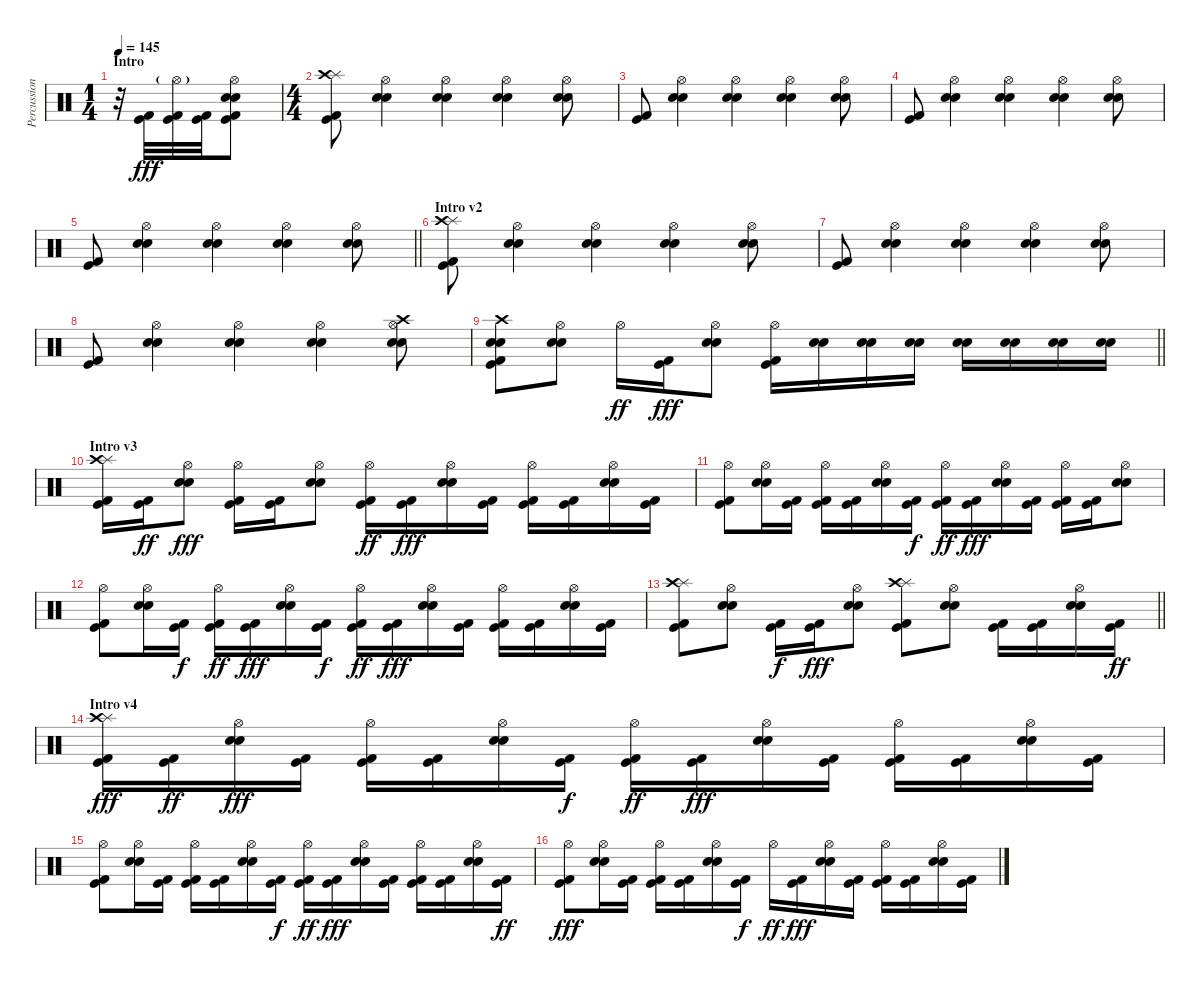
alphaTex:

\track ("Percussion" "Percussion") {instrument percussion}
\staff {score}
\articulation defaults
\ts (1 4)
\section ("" "Intro")
\tempo 145
\clef neutral
\ks c
r.32{dy fff} ("Kick (hit)" "Kick (hit) 2").32 ("Hi-Hat (open)"{g} "Kick (hit)" "Kick (hit) 2").32 ("Kick (hit)" "Kick (hit) 2").32 ("Hi-Hat (open)" "Electric Snare (hit)" "Snare (hit) 2" "Kick (hit)" "Kick (hit) 2").8 |
\ts (4 4)
("Splash (hit)" "Crash high (hit)" "Kick (hit)" "Kick (hit) 2").8 ("Hi-Hat (open)" "Electric Snare (hit)" "Snare (hit) 2").4 ("Hi-Hat (open)" "Electric Snare (hit)" "Snare (hit) 2").4 ("Hi-Hat (open)" "Electric Snare (hit)" "Snare (hit) 2").4 ("Hi-Hat (open)" "Electric Snare (hit)" "Snare (hit) 2").8 |
("Kick (hit)" "Kick (hit) 2").8 ("Hi-Hat (open)" "Electric Snare (hit)" "Snare (hit) 2").4 ("Hi-Hat (open)" "Electric Snare (hit)" "Snare (hit) 2").4 ("Hi-Hat (open)" "Electric Snare (hit)" "Snare (hit) 2").4 ("Hi-Hat (open)" "Electric Snare (hit)" "Snare (hit) 2").8 |
("Kick (hit)" "Kick (hit) 2").8 ("Hi-Hat (open)" "Electric Snare (hit)" "Snare (hit) 2").4 ("Hi-Hat (open)" "Electric Snare (hit)" "Snare (hit) 2").4 ("Hi-Hat (open)" "Electric Snare (hit)" "Snare (hit) 2").4 ("Hi-Hat (open)" "Electric Snare (hit)" "Snare (hit) 2").8 |
\barLineRight lightlight
("Kick (hit)" "Kick (hit) 2").8 ("Hi-Hat (open)" "Electric Snare (hit)" "Snare (hit) 2").4 ("Hi-Hat (open)" "Electric Snare (hit)" "Snare (hit) 2").4 ("Hi-Hat (open)" "Electric Snare (hit)" "Snare (hit) 2").4 ("Hi-Hat (open)" "Electric Snare (hit)" "Snare (hit) 2").8 |
\section ("" "Intro v2")
("Splash (hit)" "Crash high (hit)" "Kick (hit)" "Kick (hit) 2").8 ("Hi-Hat (open)" "Electric Snare (hit)" "Snare (hit) 2").4 ("Hi-Hat (open)" "Electric Snare (hit)" "Snare (hit) 2").4 ("Hi-Hat (open)" "Electric Snare (hit)" "Snare (hit) 2").4 ("Hi-Hat (open)" "Electric Snare (hit)" "Snare (hit) 2").8 |
("Kick (hit)" "Kick (hit) 2").8 ("Hi-Hat (open)" "Electric Snare (hit)" "Snare (hit) 2").4 ("Hi-Hat (open)" "Electric Snare (hit)" "Snare (hit) 2").4 ("Hi-Hat (open)" "Electric Snare (hit)" "Snare (hit) 2").4 ("Hi-Hat (open)" "Electric Snare (hit)" "Snare (hit) 2").8 |
("Kick (hit)" "Kick (hit) 2").8 ("Hi-Hat (open)" "Electric Snare (hit)" "Snare (hit) 2").4 ("Hi-Hat (open)" "Electric Snare (hit)" "Snare (hit) 2").4 ("Hi-Hat (open)" "Electric Snare (hit)" "Snare (hit) 2").4 ("Hi-Hat (open)" "Electric Snare (hit)" "Snare (hit) 2" "Crash high (hit)").8 |
\barLineRight lightlight
("Crash high (hit)" "Electric Snare (hit)" "Snare (hit) 2" "Kick (hit)" "Kick (hit) 2").8 ("Hi-Hat (open)" "Electric Snare (hit)" "Snare (hit) 2").8 "Hi-Hat (open)".16{dy ff} ("Kick (hit)" "Kick (hit) 2").16{dy fff} ("Hi-Hat (open)" "Electric Snare (hit)" "Snare (hit) 2").8 ("Hi-Hat (open)" "Kick (hit)" "Kick (hit) 2").16 ("Electric Snare (hit)" "Snare (hit) 2").16 ("Electric Snare (hit)" "Snare (hit) 2").16 ("Electric Snare (hit)" "Snare (hit) 2").16 ("Electric Snare (hit)" "Snare (hit) 2").16 ("Electric Snare (hit)" "Snare (hit) 2").16 ("Electric Snare (hit)" "Snare (hit) 2").16 ("Electric Snare (hit)" "Snare (hit) 2").16 |
\section ("" "Intro v3")
("Splash (hit)" "Crash high (hit)" "Kick (hit)" "Kick (hit) 2").16 ("Kick (hit)" "Kick (hit) 2").16{dy ff} ("Hi-Hat (open)" "Electric Snare (hit)" "Snare (hit) 2").8{dy fff} ("Hi-Hat (open)" "Kick (hit)" "Kick (hit) 2").16 ("Kick (hit)" "Kick (hit) 2").16 ("Hi-Hat (open)" "Electric Snare (hit)" "Snare (hit) 2").8 ("Hi-Hat (open)" "Kick (hit)" "Kick (hit) 2").16{dy ff} ("Kick (hit)" "Kick (hit) 2").16{dy fff} ("Hi-Hat (open)" "Electric Snare (hit)" "Snare (hit) 2").16 ("Kick (hit)" "Kick (hit) 2").16 ("Hi-Hat (open)" "Kick (hit)" "Kick (hit) 2").16 ("Kick (hit)" "Kick (hit) 2").16 ("Hi-Hat (open)" "Electric Snare (hit)" "Snare (hit) 2").16 ("Kick (hit)" "Kick (hit) 2").16 |
("Hi-Hat (open)" "Kick (hit)" "Kick (hit) 2").8 ("Hi-Hat (open)" "Electric Snare (hit)" "Snare (hit) 2").16 ("Kick (hit)" "Kick (hit) 2").16 ("Hi-Hat (open)" "Kick (hit)" "Kick (hit) 2").16 ("Kick (hit)" "Kick (hit) 2").16 ("Hi-Hat (open)" "Electric Snare (hit)" "Snare (hit) 2").16 ("Kick (hit)" "Kick (hit) 2").16{dy f} ("Hi-Hat (open)" "Kick (hit)" "Kick (hit) 2").16{dy ff} ("Kick (hit)" "Kick (hit) 2").16{dy fff} ("Hi-Hat (open)" "Electric Snare (hit)" "Snare (hit) 2").16 ("Kick (hit)" "Kick (hit) 2").16 ("Hi-Hat (open)" "Kick (hit)" "Kick (hit) 2").16 ("Kick (hit)" "Kick (hit) 2").16 ("Hi-Hat (open)" "Electric Snare (hit)" "Snare (hit) 2").8 |
("Hi-Hat (open)" "Kick (hit)" "Kick (hit) 2").8 ("Hi-Hat (open)" "Electric Snare (hit)" "Snare (hit) 2").16 ("Kick (hit)" "Kick (hit) 2").16{dy f} ("Hi-Hat (open)" "Kick (hit)" "Kick (hit) 2").16{dy ff} ("Kick (hit)" "Kick (hit) 2").16{dy fff} ("Hi-Hat (open)" "Electric Snare (hit)" "Snare (hit) 2").16 ("Kick (hit)" "Kick (hit) 2").16{dy f} ("Hi-Hat (open)" "Kick (hit)" "Kick (hit) 2").16{dy ff} ("Kick (hit)" "Kick (hit) 2").16{dy fff} ("Hi-Hat (open)" "Electric Snare (hit)" "Snare (hit) 2").16 ("Kick (hit)" "Kick (hit) 2").16 ("Hi-Hat (open)" "Kick (hit)" "Kick (hit) 2").16 ("Kick (hit)" "Kick (hit) 2").16 ("Hi-Hat (open)" "Electric Snare (hit)" "Snare (hit) 2").16 ("Kick (hit)" "Kick (hit) 2").16 |
\barLineRight lightlight
("Splash (hit)" "Crash high (hit)" "Kick (hit)" "Kick (hit) 2").8 ("Hi-Hat (open)" "Electric Snare (hit)" "Snare (hit) 2").8 ("Kick (hit)" "Kick (hit) 2").16{dy f} ("Kick (hit)" "Kick (hit) 2").16{dy fff} ("Hi-Hat (open)" "Electric Snare (hit)" "Snare (hit) 2").8 ("Splash (hit)" "Crash high (hit)" "Kick (hit)" "Kick (hit) 2").8 ("Hi-Hat (open)" "Electric Snare (hit)" "Snare (hit) 2").8 ("Kick (hit)" "Kick (hit) 2").16 ("Kick (hit)" "Kick (hit) 2").16 ("Hi-Hat (open)" "Electric Snare (hit)" "Snare (hit) 2").16 ("Kick (hit)" "Kick (hit) 2").16{dy ff} |
\section ("" "Intro v4")
("Splash (hit)" "Crash high (hit)" "Kick (hit)" "Kick (hit) 2").16{dy fff} ("Kick (hit)" "Kick (hit) 2").16{dy ff} ("Hi-Hat (open)" "Electric Snare (hit)" "Snare (hit) 2").16{dy fff} ("Kick (hit)" "Kick (hit) 2").16 ("Hi-Hat (open)" "Kick (hit)" "Kick (hit) 2").16 ("Kick (hit)" "Kick (hit) 2").16 ("Hi-Hat (open)" "Electric Snare (hit)" "Snare (hit) 2").16 ("Kick (hit)" "Kick (hit) 2").16{dy f} ("Hi-Hat (open)" "Kick (hit)" "Kick (hit) 2").16{dy ff} ("Kick (hit)" "Kick (hit) 2").16{dy fff} ("Hi-Hat (open)" "Electric Snare (hit)" "Snare (hit) 2").16 ("Kick (hit)" "Kick (hit) 2").16 ("Hi-Hat (open)" "Kick (hit)" "Kick (hit) 2").16 ("Kick (hit)" "Kick (hit) 2").16 ("Hi-Hat (open)" "Electric Snare (hit)" "Snare (hit) 2").16 ("Kick (hit)" "Kick (hit) 2").16 |
("Hi-Hat (open)" "Kick (hit)" "Kick (hit) 2").8 ("Hi-Hat (open)" "Electric Snare (hit)" "Snare (hit) 2").16 ("Kick (hit)" "Kick (hit) 2").16 ("Hi-Hat (open)" "Kick (hit)" "Kick (hit) 2").16 ("Kick (hit)" "Kick (hit) 2").16 ("Hi-Hat (open)" "Electric Snare (hit)" "Snare (hit) 2").16 ("Kick (hit)" "Kick (hit) 2").16{dy f} ("Hi-Hat (open)" "Kick (hit)" "Kick (hit) 2").16{dy ff} ("Kick (hit)" "Kick (hit) 2").16{dy fff} ("Hi-Hat (open)" "Electric Snare (hit)" "Snare (hit) 2").16 ("Kick (hit)" "Kick (hit) 2").16 ("Hi-Hat (open)" "Kick (hit)" "Kick (hit) 2").16 ("Kick (hit)" "Kick (hit) 2").16 ("Hi-Hat (open)" "Electric Snare (hit)" "Snare (hit) 2").16 ("Kick (hit)" "Kick (hit) 2").16{dy ff} |
("Hi-Hat (open)" "Kick (hit)" "Kick (hit) 2").8{dy fff} ("Hi-Hat (open)" "Electric Snare (hit)" "Snare (hit) 2").16 ("Kick (hit)" "Kick (hit) 2").16 ("Hi-Hat (open)" "Kick (hit)" "Kick (hit) 2").16 ("Kick (hit)" "Kick (hit) 2").16 ("Hi-Hat (open)" "Electric Snare (hit)" "Snare (hit) 2").16 ("Kick (hit)" "Kick (hit) 2").16{dy f} "Hi-Hat (open)".16{dy ff} ("Kick (hit)" "Kick (hit) 2").16{dy fff} ("Hi-Hat (open)" "Electric Snare (hit)" "Snare (hit) 2").16 ("Kick (hit)" "Kick (hit) 2").16 ("Hi-Hat (open)" "Kick (hit)" "Kick (hit) 2").16 ("Kick (hit)" "Kick (hit) 2").16 ("Hi-Hat (open)" "Electric Snare (hit)" "Snare (hit) 2").16 ("Kick (hit)" "Kick (hit) 2").16
